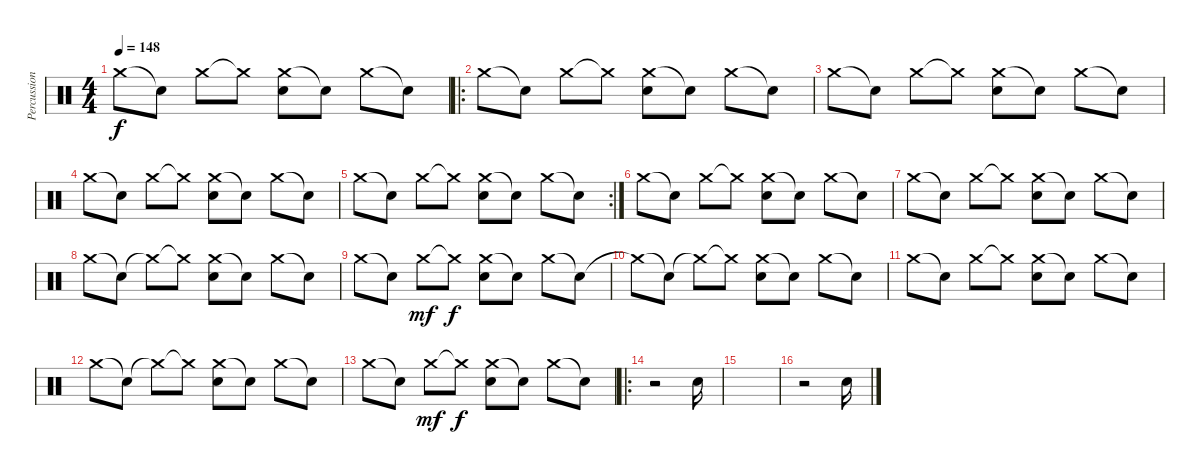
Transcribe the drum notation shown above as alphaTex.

\track ("Percussion" "Percussion") {instrument percussion}
\staff {score}
\articulation defaults
\ts (4 4)
\tempo 148
\clef neutral
\ks c "Crash medium (hit)".8{dy f} "Snare (hit)"{t}.8 "Crash medium (hit)".8 "Crash medium (hit)"{t}.8
("Crash medium (hit)" "Snare (hit) 2").8 "Snare (hit)"{t}.8 "Crash medium (hit)".8 "Snare (hit)"{t}.8 |
\ro "Crash medium (hit)".8 "Snare (hit)"{t}.8 "Crash medium (hit)".8 "Crash medium (hit)"{t}.8
("Crash medium (hit)" "Snare (hit) 2").8 "Snare (hit)"{t}.8 "Crash medium (hit)".8 "Snare (hit)"{t}.8 |
"Crash medium (hit)".8 "Snare (hit)"{t}.8 "Crash medium (hit)".8 "Crash medium (hit)"{t}.8 ("Crash medium (hit)" "Snare (hit) 2").8 "Snare (hit)"{t}.8 "Crash medium (hit)".8 "Snare (hit)"{t}.8 |
"Crash medium (hit)".8 "Snare (hit)"{t}.8 "Crash medium (hit)".8 "Crash medium (hit)"{t}.8 ("Crash medium (hit)" "Snare (hit) 2").8 "Snare (hit)"{t}.8 "Crash medium (hit)".8 "Snare (hit)"{t}.8 |
\rc 2 "Crash medium (hit)".8 "Snare (hit)"{t}.8 "Crash medium (hit)".8 "Crash medium (hit)"{t}.8
("Crash medium (hit)" "Snare (hit) 2").8 "Snare (hit)"{t}.8 "Crash medium (hit)".8 "Snare (hit)"{t}.8 |
"Crash medium (hit)".8 "Snare (hit)"{t}.8 "Crash medium (hit)".8 "Crash medium (hit)"{t}.8 ("Crash medium (hit)" "Snare (hit) 2").8 "Snare (hit)"{t}.8 "Crash medium (hit)".8 "Snare (hit)"{t}.8 |
"Crash medium (hit)".8 "Snare (hit)"{t}.8 "Crash medium (hit)".8 "Crash medium (hit)"{t}.8 ("Crash medium (hit)" "Snare (hit) 2").8 "Snare (hit)"{t}.8 "Crash medium (hit)".8 "Snare (hit)"{t}.8 |
"Crash medium (hit)".8 "Snare (hit)"{t}.8 "Crash medium (hit)"{t}.8 "Crash medium (hit)"{t}.8 ("Crash medium (hit)" "Snare (hit) 2").8 "Snare (hit)"{t}.8 "Crash medium (hit)".8 "Snare (hit)"{t}.8 |
"Crash medium (hit)".8 "Snare (hit)"{t}.8 "Crash medium (hit)".8{dy mf} "Crash medium (hit)"{t}.8{dy f} ("Crash medium (hit)" "Snare (hit) 2").8 "Snare (hit)"{t}.8 "Crash medium (hit)".8 "Snare (hit)"{t}.8 |
"Crash medium (hit)"{t}.8 "Snare (hit)"{t}.8 "Crash medium (hit)"{t}.8 "Crash medium (hit)"{t}.8 ("Crash medium (hit)" "Snare (hit) 2").8 "Snare (hit)"{t}.8 "Crash medium (hit)".8 "Snare (hit)"{t}.8 |
"Crash medium (hit)".8 "Snare (hit)"{t}.8 "Crash medium (hit)".8 "Crash medium (hit)"{t}.8 ("Crash medium (hit)" "Snare (hit) 2").8 "Snare (hit)"{t}.8 "Crash medium (hit)".8 "Snare (hit)"{t}.8 |
"Crash medium (hit)".8 "Snare (hit)"{t}.8 "Crash medium (hit)"{t}.8 "Crash medium (hit)"{t}.8 ("Crash medium (hit)" "Snare (hit) 2").8 "Snare (hit)"{t}.8 "Crash medium (hit)".8 "Snare (hit)"{t}.8 |
"Crash medium (hit)".8 "Snare (hit)"{t}.8 "Crash medium (hit)".8{dy mf} "Crash medium (hit)"{t}.8{dy f} ("Crash medium (hit)" "Snare (hit) 2").8 "Snare (hit)"{t}.8 "Crash medium (hit)".8 "Snare (hit)"{t}.8 |
\ro
r.2 "Snare (hit) 2".16 |
|
r.2 "Snare (hit) 2".16
